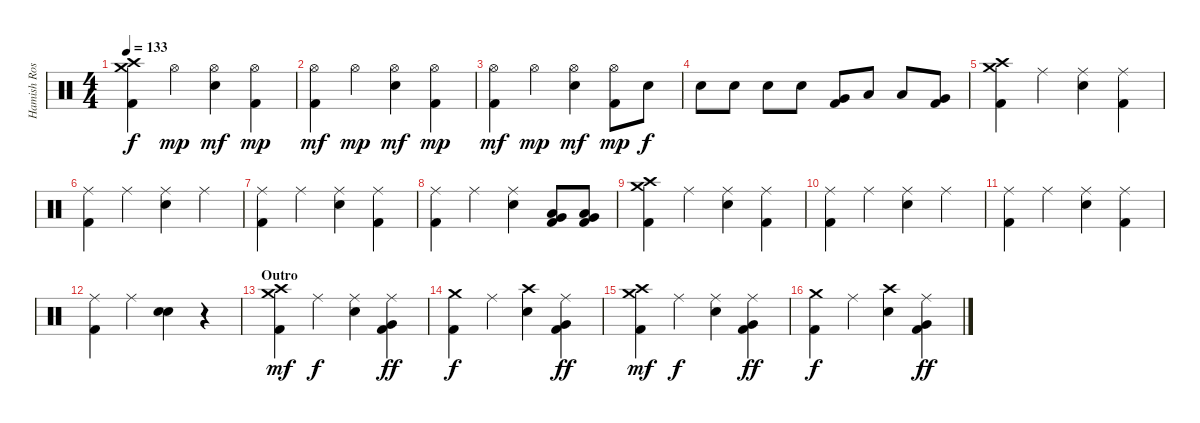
\track ("Hamish Rosser" "Hamish Ros") {instrument percussion}
\staff {score}
\articulation defaults
\ts (4 4)
\tempo 133
\clef neutral
\ks c
("Crash medium (hit)" "Crash high (hit)" "Kick (hit) 2").4{dy f} "Hi-Hat (open)".4{dy mp} ("Hi-Hat (open)" "Electric Snare (hit)").4{dy mf} ("Hi-Hat (open)" "Kick (hit) 2").4{dy mp} |
("Hi-Hat (open)" "Kick (hit) 2").4{dy mf} "Hi-Hat (open)".4{dy mp} ("Hi-Hat (open)" "Electric Snare (hit)").4{dy mf} ("Hi-Hat (open)" "Kick (hit) 2").4{dy mp} |
("Hi-Hat (open)" "Kick (hit) 2").4{dy mf} "Hi-Hat (open)".4{dy mp} ("Hi-Hat (open)" "Electric Snare (hit)").4{dy mf} ("Hi-Hat (open)" "Kick (hit) 2").8{dy mp} "Electric Snare (hit)".8{dy f} |
"Electric Snare (hit)".8 "Electric Snare (hit)".8 "Electric Snare (hit)".8 "Electric Snare (hit)".8 ("Very Low Tom (hit)" "Kick (hit) 2").8 "Low Tom (hit)".8 "Low Tom (hit)".8 ("Very Low Tom (hit)" "Kick (hit) 2").8 |
("Crash high (hit)" "Crash medium (hit)" "Kick (hit) 2").4 "Ride (middle)".4 ("Ride (middle)" "Electric Snare (hit)").4 ("Ride (middle)" "Kick (hit) 2").4 |
("Ride (middle)" "Kick (hit) 2").4 "Ride (middle)".4 ("Ride (middle)" "Electric Snare (hit)").4 "Ride (middle)".4 |
("Ride (middle)" "Kick (hit) 2").4 "Ride (middle)".4 ("Ride (middle)" "Electric Snare (hit)").4 ("Ride (middle)" "Kick (hit) 2").4 |
("Ride (middle)" "Kick (hit) 2").4 "Ride (middle)".4 ("Ride (middle)" "Electric Snare (hit)").4 ("Low Tom (hit)" "Very Low Tom (hit)" "Kick (hit) 2").8 ("Low Tom (hit)" "Very Low Tom (hit)" "Kick (hit) 2").8 |
("Crash high (hit)" "Crash medium (hit)" "Kick (hit) 2").4 "Ride (middle)".4 ("Ride (middle)" "Electric Snare (hit)").4 ("Ride (middle)" "Kick (hit) 2").4 |
("Ride (middle)" "Kick (hit) 2").4 "Ride (middle)".4 ("Ride (middle)" "Electric Snare (hit)").4 "Ride (middle)".4 |
("Ride (middle)" "Kick (hit) 2").4 "Ride (middle)".4 ("Ride (middle)" "Electric Snare (hit)").4 ("Ride (middle)" "Kick (hit) 2").4 |
("Ride (middle)" "Kick (hit) 2").4 "Ride (middle)".4 ("Electric Snare (hit)" "Electric Snare (hit)").4{bu 120} r.4 |
\section ("" "Outro")
("Crash medium (hit)" "Crash high (hit)" "Kick (hit) 2").4{dy mf} "Ride (middle)".4{dy f} ("Ride (middle)" "Electric Snare (hit)").4 ("Ride (middle)" "Very Low Tom (hit)" "Kick (hit) 2").4{dy ff} |
("Crash medium (hit)" "Kick (hit) 2").4{dy f} "Ride (middle)".4 ("Crash high (hit)" "Electric Snare (hit)").4 ("Ride (middle)" "Very Low Tom (hit)" "Kick (hit) 2").4{dy ff} |
("Crash medium (hit)" "Crash high (hit)" "Kick (hit) 2").4{dy mf} "Ride (middle)".4{dy f} ("Ride (middle)" "Electric Snare (hit)").4 ("Ride (middle)" "Very Low Tom (hit)" "Kick (hit) 2").4{dy ff} |
("Crash medium (hit)" "Kick (hit) 2").4{dy f} "Ride (middle)".4 ("Crash high (hit)" "Electric Snare (hit)").4 ("Ride (middle)" "Very Low Tom (hit)" "Kick (hit) 2").4{dy ff}
